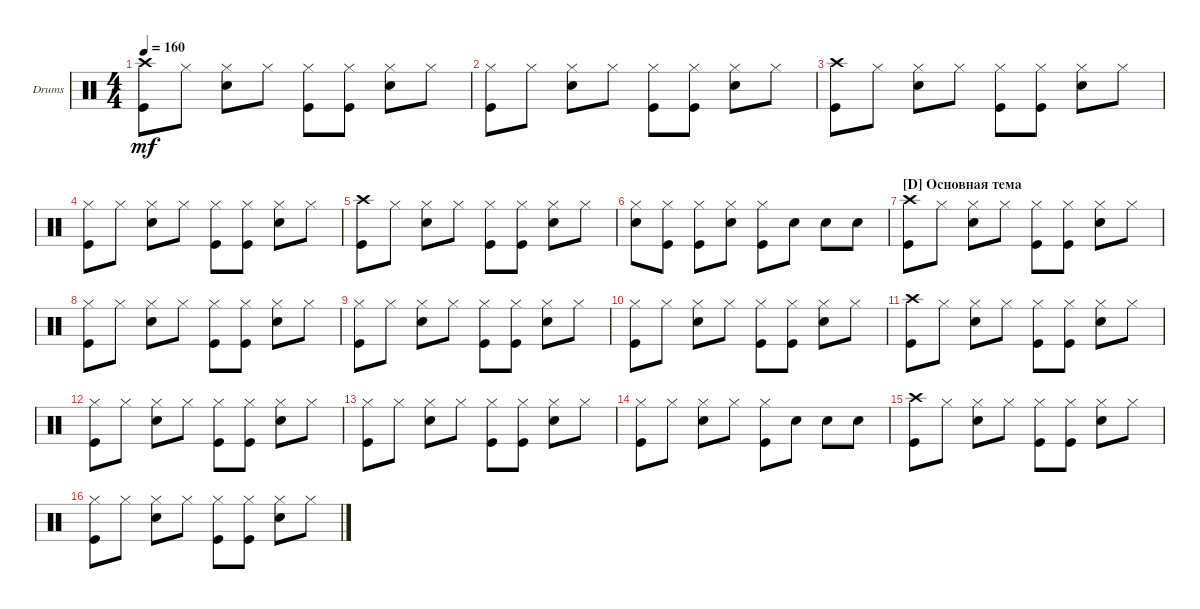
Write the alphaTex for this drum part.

\bracketExtendMode groupsimilarinstruments
\firstSystemTrackNameOrientation horizontal
\otherSystemsTrackNameOrientation horizontal
\track ("Drumkit" "Drums") {instrument percussion}
\staff {score}
\articulation defaults
\ts (4 4)
\tempo 160
\clef neutral
\ks c
("Kick (hit)" "Crash high (hit)").8{dy mf} "Hi-Hat (closed)".8 ("Hi-Hat (closed)" "Snare (hit) 2").8 "Hi-Hat (closed)".8 ("Kick (hit)" "Hi-Hat (closed)").8 ("Hi-Hat (closed)" "Kick (hit)").8 ("Hi-Hat (closed)" "Snare (hit) 2").8 "Hi-Hat (closed)".8 |
("Kick (hit)" "Hi-Hat (closed)").8 "Hi-Hat (closed)".8 ("Hi-Hat (closed)" "Snare (hit) 2").8 "Hi-Hat (closed)".8 ("Kick (hit)" "Hi-Hat (closed)").8 ("Hi-Hat (closed)" "Kick (hit)").8 ("Hi-Hat (closed)" "Snare (hit) 2").8 "Hi-Hat (closed)".8 |
("Kick (hit)" "Crash high (hit)").8 "Hi-Hat (closed)".8 ("Hi-Hat (closed)" "Snare (hit) 2").8 "Hi-Hat (closed)".8 ("Kick (hit)" "Hi-Hat (closed)").8 ("Hi-Hat (closed)" "Kick (hit)").8 ("Hi-Hat (closed)" "Snare (hit) 2").8 "Hi-Hat (closed)".8 |
("Kick (hit)" "Hi-Hat (closed)").8 "Hi-Hat (closed)".8 ("Hi-Hat (closed)" "Snare (hit) 2").8 "Hi-Hat (closed)".8 ("Kick (hit)" "Hi-Hat (closed)").8 ("Hi-Hat (closed)" "Kick (hit)").8 ("Hi-Hat (closed)" "Snare (hit) 2").8 "Hi-Hat (closed)".8 |
("Kick (hit)" "Crash high (hit)").8 "Hi-Hat (closed)".8 ("Hi-Hat (closed)" "Snare (hit) 2").8 "Hi-Hat (closed)".8 ("Kick (hit)" "Hi-Hat (closed)").8 ("Hi-Hat (closed)" "Kick (hit)").8 ("Hi-Hat (closed)" "Snare (hit) 2").8 "Hi-Hat (closed)".8 |
("Hi-Hat (closed)" "Snare (hit) 2").8 ("Hi-Hat (closed)" "Kick (hit)").8 ("Hi-Hat (closed)" "Kick (hit)").8 ("Hi-Hat (closed)" "Snare (hit) 2").8 ("Kick (hit)" "Hi-Hat (closed)").8 "Snare (hit) 2".8 "Snare (hit) 2".8 "Snare (hit) 2".8 |
\section ("D" "Основная тема")
("Kick (hit)" "Crash high (hit)").8 "Hi-Hat (closed)".8 ("Hi-Hat (closed)" "Snare (hit) 2").8 "Hi-Hat (closed)".8 ("Kick (hit)" "Hi-Hat (closed)").8 ("Hi-Hat (closed)" "Kick (hit)").8 ("Hi-Hat (closed)" "Snare (hit) 2").8 "Hi-Hat (closed)".8 |
("Kick (hit)" "Hi-Hat (closed)").8 "Hi-Hat (closed)".8 ("Hi-Hat (closed)" "Snare (hit) 2").8 "Hi-Hat (closed)".8 ("Kick (hit)" "Hi-Hat (closed)").8 ("Hi-Hat (closed)" "Kick (hit)").8 ("Hi-Hat (closed)" "Snare (hit) 2").8 "Hi-Hat (closed)".8 |
("Kick (hit)" "Hi-Hat (closed)").8 "Hi-Hat (closed)".8 ("Hi-Hat (closed)" "Snare (hit) 2").8 "Hi-Hat (closed)".8 ("Kick (hit)" "Hi-Hat (closed)").8 ("Hi-Hat (closed)" "Kick (hit)").8 ("Hi-Hat (closed)" "Snare (hit) 2").8 "Hi-Hat (closed)".8 |
("Kick (hit)" "Hi-Hat (closed)").8 "Hi-Hat (closed)".8 ("Hi-Hat (closed)" "Snare (hit) 2").8 "Hi-Hat (closed)".8 ("Kick (hit)" "Hi-Hat (closed)").8 ("Hi-Hat (closed)" "Kick (hit)").8 ("Hi-Hat (closed)" "Snare (hit) 2").8 "Hi-Hat (closed)".8 |
("Kick (hit)" "Crash high (hit)").8 "Hi-Hat (closed)".8 ("Hi-Hat (closed)" "Snare (hit) 2").8 "Hi-Hat (closed)".8 ("Kick (hit)" "Hi-Hat (closed)").8 ("Hi-Hat (closed)" "Kick (hit)").8 ("Hi-Hat (closed)" "Snare (hit) 2").8 "Hi-Hat (closed)".8 |
("Kick (hit)" "Hi-Hat (closed)").8 "Hi-Hat (closed)".8 ("Hi-Hat (closed)" "Snare (hit) 2").8 "Hi-Hat (closed)".8 ("Kick (hit)" "Hi-Hat (closed)").8 ("Hi-Hat (closed)" "Kick (hit)").8 ("Hi-Hat (closed)" "Snare (hit) 2").8 "Hi-Hat (closed)".8 |
("Kick (hit)" "Hi-Hat (closed)").8 "Hi-Hat (closed)".8 ("Hi-Hat (closed)" "Snare (hit) 2").8 "Hi-Hat (closed)".8 ("Kick (hit)" "Hi-Hat (closed)").8 ("Hi-Hat (closed)" "Kick (hit)").8 ("Hi-Hat (closed)" "Snare (hit) 2").8 "Hi-Hat (closed)".8 |
("Kick (hit)" "Hi-Hat (closed)").8 "Hi-Hat (closed)".8 ("Hi-Hat (closed)" "Snare (hit) 2").8 "Hi-Hat (closed)".8 ("Kick (hit)" "Hi-Hat (closed)").8 "Snare (hit) 2".8 "Snare (hit) 2".8 "Snare (hit) 2".8 |
("Kick (hit)" "Crash high (hit)").8 "Hi-Hat (closed)".8 ("Hi-Hat (closed)" "Snare (hit) 2").8 "Hi-Hat (closed)".8 ("Kick (hit)" "Hi-Hat (closed)").8 ("Hi-Hat (closed)" "Kick (hit)").8 ("Hi-Hat (closed)" "Snare (hit) 2").8 "Hi-Hat (closed)".8 |
("Kick (hit)" "Hi-Hat (closed)").8 "Hi-Hat (closed)".8 ("Hi-Hat (closed)" "Snare (hit) 2").8 "Hi-Hat (closed)".8 ("Kick (hit)" "Hi-Hat (closed)").8 ("Hi-Hat (closed)" "Kick (hit)").8 ("Hi-Hat (closed)" "Snare (hit) 2").8 "Hi-Hat (closed)".8
